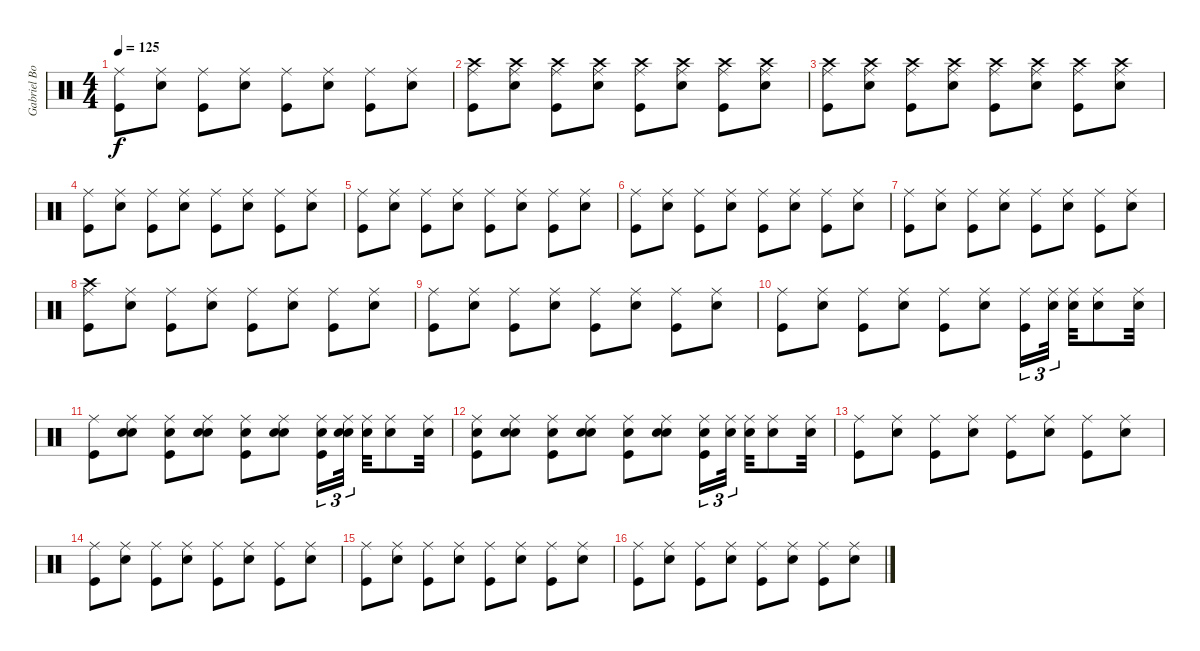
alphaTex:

\track ("Gabriel Boizinho" "Gabriel Bo") {instrument percussion}
\staff {score}
\articulation defaults
\ts (4 4)
\tempo 125
\clef neutral
\ks c
("Ride (middle)" "Kick (hit)").8{dy f} ("Ride (middle)" "Electric Snare (hit)").8 ("Ride (middle)" "Kick (hit)").8 ("Ride (middle)" "Electric Snare (hit)").8 ("Ride (middle)" "Kick (hit)").8 ("Ride (middle)" "Electric Snare (hit)").8 ("Ride (middle)" "Kick (hit)").8 ("Ride (middle)" "Electric Snare (hit)").8 |
("Crash high (hit)" "Ride (middle)" "Kick (hit)").8 ("Crash high (hit)" "Ride (middle)" "Electric Snare (hit)").8 ("Crash high (hit)" "Ride (middle)" "Kick (hit)").8 ("Crash high (hit)" "Ride (middle)" "Electric Snare (hit)").8 ("Crash high (hit)" "Ride (middle)" "Kick (hit)").8 ("Crash high (hit)" "Ride (middle)" "Electric Snare (hit)").8 ("Crash high (hit)" "Ride (middle)" "Kick (hit)").8 ("Crash high (hit)" "Ride (middle)" "Electric Snare (hit)").8 |
("Crash high (hit)" "Ride (middle)" "Kick (hit)").8 ("Crash high (hit)" "Ride (middle)" "Electric Snare (hit)").8 ("Crash high (hit)" "Ride (middle)" "Kick (hit)").8 ("Crash high (hit)" "Ride (middle)" "Electric Snare (hit)").8 ("Crash high (hit)" "Ride (middle)" "Kick (hit)").8 ("Crash high (hit)" "Ride (middle)" "Electric Snare (hit)").8 ("Crash high (hit)" "Ride (middle)" "Kick (hit)").8 ("Crash high (hit)" "Ride (middle)" "Electric Snare (hit)").8 |
("Ride (middle)" "Kick (hit)").8 ("Ride (middle)" "Electric Snare (hit)").8 ("Ride (middle)" "Kick (hit)").8 ("Ride (middle)" "Electric Snare (hit)").8 ("Ride (middle)" "Kick (hit)").8 ("Ride (middle)" "Electric Snare (hit)").8 ("Ride (middle)" "Kick (hit)").8 ("Ride (middle)" "Electric Snare (hit)").8 |
("Ride (middle)" "Kick (hit)").8 ("Ride (middle)" "Electric Snare (hit)").8 ("Ride (middle)" "Kick (hit)").8 ("Ride (middle)" "Electric Snare (hit)").8 ("Ride (middle)" "Kick (hit)").8 ("Ride (middle)" "Electric Snare (hit)").8 ("Ride (middle)" "Kick (hit)").8 ("Ride (middle)" "Electric Snare (hit)").8 |
("Ride (middle)" "Kick (hit)").8 ("Ride (middle)" "Electric Snare (hit)").8 ("Ride (middle)" "Kick (hit)").8 ("Ride (middle)" "Electric Snare (hit)").8 ("Ride (middle)" "Kick (hit)").8 ("Ride (middle)" "Electric Snare (hit)").8 ("Ride (middle)" "Kick (hit)").8 ("Ride (middle)" "Electric Snare (hit)").8 |
("Ride (middle)" "Kick (hit)").8 ("Ride (middle)" "Electric Snare (hit)").8 ("Ride (middle)" "Kick (hit)").8 ("Ride (middle)" "Electric Snare (hit)").8 ("Ride (middle)" "Kick (hit)").8 ("Ride (middle)" "Electric Snare (hit)").8 ("Ride (middle)" "Kick (hit)").8 ("Ride (middle)" "Electric Snare (hit)").8 |
("Crash high (hit)" "Ride (middle)" "Kick (hit)").8 ("Ride (middle)" "Electric Snare (hit)").8 ("Ride (middle)" "Kick (hit)").8 ("Ride (middle)" "Electric Snare (hit)").8 ("Ride (middle)" "Kick (hit)").8 ("Ride (middle)" "Electric Snare (hit)").8 ("Ride (middle)" "Kick (hit)").8 ("Ride (middle)" "Electric Snare (hit)").8 |
("Ride (middle)" "Kick (hit)").8 ("Ride (middle)" "Electric Snare (hit)").8 ("Ride (middle)" "Kick (hit)").8 ("Ride (middle)" "Electric Snare (hit)").8 ("Ride (middle)" "Kick (hit)").8 ("Ride (middle)" "Electric Snare (hit)").8 ("Ride (middle)" "Kick (hit)").8 ("Ride (middle)" "Electric Snare (hit)").8 |
("Ride (middle)" "Kick (hit)").8 ("Ride (middle)" "Electric Snare (hit)").8 ("Ride (middle)" "Kick (hit)").8 ("Ride (middle)" "Electric Snare (hit)").8 ("Ride (middle)" "Kick (hit)").8 ("Ride (middle)" "Electric Snare (hit)").8 ("Ride (middle)" "Kick (hit)").16{tu (3 2)} ("Ride (middle)" "Electric Snare (hit)").32{tu (3 2)} ("Ride (middle)" "Electric Snare (hit)").32 ("Ride (middle)" "Electric Snare (hit)").8 ("Ride (middle)" "Electric Snare (hit)").32 |
("Ride (middle)" "Kick (hit)").8 ("Electric Snare (hit)" "Ride (middle)" "Electric Snare (hit)").8 ("Electric Snare (hit)" "Ride (middle)" "Kick (hit)").8 ("Electric Snare (hit)" "Ride (middle)" "Electric Snare (hit)").8 ("Electric Snare (hit)" "Ride (middle)" "Kick (hit)").8 ("Electric Snare (hit)" "Ride (middle)" "Electric Snare (hit)").8 ("Electric Snare (hit)" "Ride (middle)" "Kick (hit)").16{tu (3 2)} ("Electric Snare (hit)" "Ride (middle)" "Electric Snare (hit)").32{tu (3 2)} ("Ride (middle)" "Electric Snare (hit)").32 ("Ride (middle)" "Electric Snare (hit)").8 ("Ride (middle)" "Electric Snare (hit)").32 |
("Electric Snare (hit)" "Ride (middle)" "Kick (hit)").8 ("Electric Snare (hit)" "Ride (middle)" "Electric Snare (hit)").8 ("Electric Snare (hit)" "Ride (middle)" "Kick (hit)").8 ("Electric Snare (hit)" "Ride (middle)" "Electric Snare (hit)").8 ("Electric Snare (hit)" "Ride (middle)" "Kick (hit)").8 ("Electric Snare (hit)" "Ride (middle)" "Electric Snare (hit)").8 ("Electric Snare (hit)" "Ride (middle)" "Kick (hit)").16{tu (3 2)} ("Ride (middle)" "Electric Snare (hit)").32{tu (3 2)} ("Ride (middle)" "Electric Snare (hit)").32 ("Ride (middle)" "Electric Snare (hit)").8 ("Ride (middle)" "Electric Snare (hit)").32 |
("Ride (middle)" "Kick (hit)").8 ("Ride (middle)" "Electric Snare (hit)").8 ("Ride (middle)" "Kick (hit)").8 ("Ride (middle)" "Electric Snare (hit)").8 ("Ride (middle)" "Kick (hit)").8 ("Ride (middle)" "Electric Snare (hit)").8 ("Ride (middle)" "Kick (hit)").8 ("Ride (middle)" "Electric Snare (hit)").8 |
("Ride (middle)" "Kick (hit)").8 ("Ride (middle)" "Electric Snare (hit)").8 ("Ride (middle)" "Kick (hit)").8 ("Ride (middle)" "Electric Snare (hit)").8 ("Ride (middle)" "Kick (hit)").8 ("Ride (middle)" "Electric Snare (hit)").8 ("Ride (middle)" "Kick (hit)").8 ("Ride (middle)" "Electric Snare (hit)").8 |
("Ride (middle)" "Kick (hit)").8 ("Ride (middle)" "Electric Snare (hit)").8 ("Ride (middle)" "Kick (hit)").8 ("Ride (middle)" "Electric Snare (hit)").8 ("Ride (middle)" "Kick (hit)").8 ("Ride (middle)" "Electric Snare (hit)").8 ("Ride (middle)" "Kick (hit)").8 ("Ride (middle)" "Electric Snare (hit)").8 |
("Ride (middle)" "Kick (hit)").8 ("Ride (middle)" "Electric Snare (hit)").8 ("Ride (middle)" "Kick (hit)").8 ("Ride (middle)" "Electric Snare (hit)").8 ("Ride (middle)" "Kick (hit)").8 ("Ride (middle)" "Electric Snare (hit)").8 ("Ride (middle)" "Kick (hit)").8 ("Ride (middle)" "Electric Snare (hit)").8
